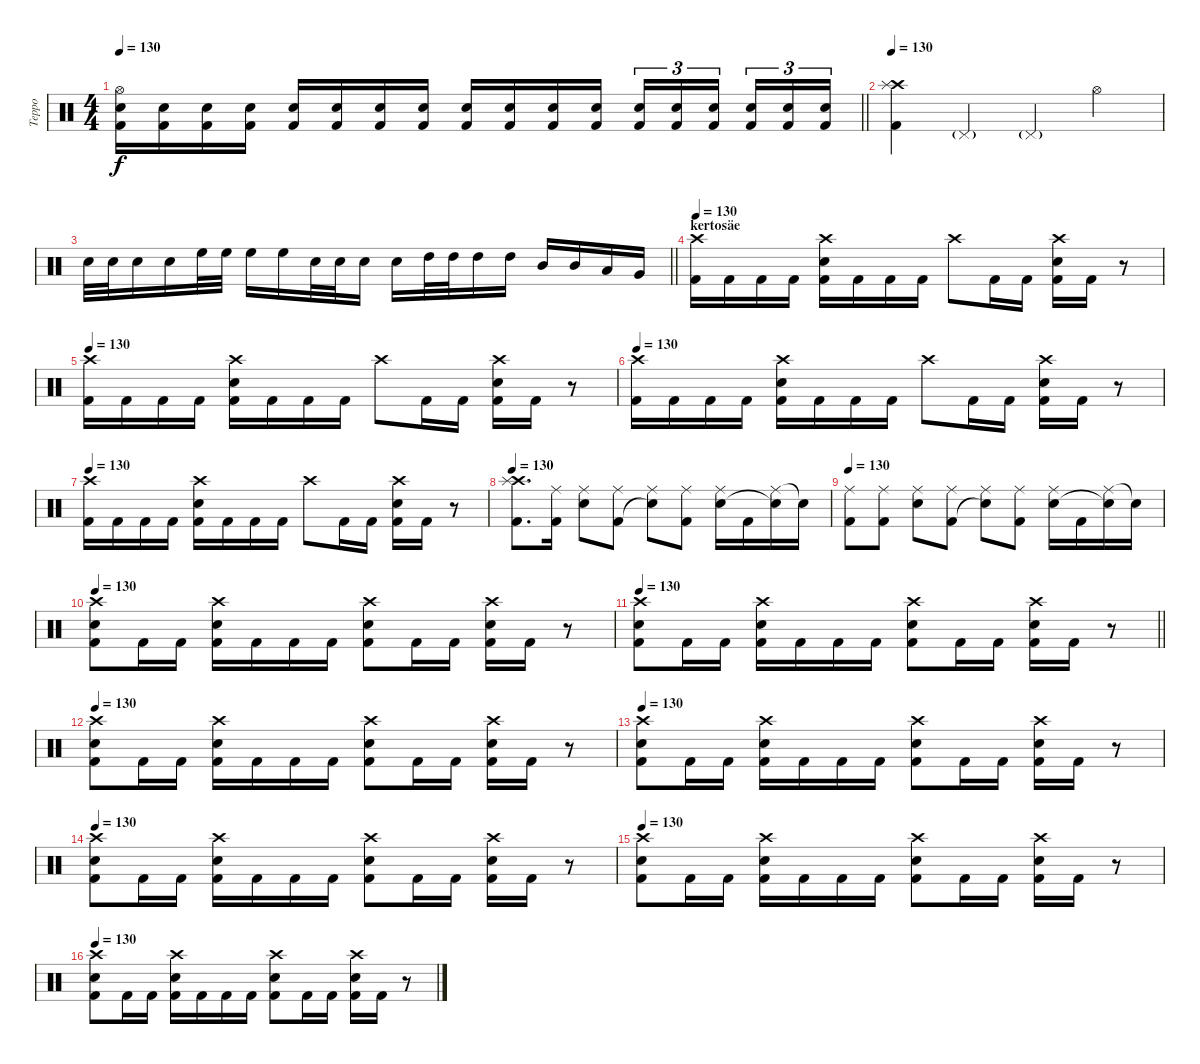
\track ("Teppo" "Teppo") {instrument percussion}
\staff {score}
\articulation defaults
\ts (4 4)
\tempo 130
\clef neutral
\barLineRight lightlight
\ks c
("Hi-Hat (open)" "Electric Snare (hit)" "Kick (hit) 2").16{dy f} ("Electric Snare (hit)" "Kick (hit) 2").16 ("Electric Snare (hit)" "Kick (hit) 2").16 ("Electric Snare (hit)" "Kick (hit) 2").16 ("Electric Snare (hit)" "Kick (hit) 2").16 ("Electric Snare (hit)" "Kick (hit) 2").16 ("Electric Snare (hit)" "Kick (hit) 2").16 ("Electric Snare (hit)" "Kick (hit) 2").16 ("Electric Snare (hit)" "Kick (hit) 2").16 ("Electric Snare (hit)" "Kick (hit) 2").16 ("Electric Snare (hit)" "Kick (hit) 2").16 ("Electric Snare (hit)" "Kick (hit) 2").16 ("Electric Snare (hit)" "Kick (hit) 2").16{tu (3 2)} ("Electric Snare (hit)" "Kick (hit) 2").16{tu (3 2)} ("Electric Snare (hit)" "Kick (hit) 2").16{tu (3 2)} ("Electric Snare (hit)" "Kick (hit) 2").16{tu (3 2)} ("Electric Snare (hit)" "Kick (hit) 2").16{tu (3 2)} ("Electric Snare (hit)" "Kick (hit) 2").16{tu (3 2)} |
\section ("" "")
\tempo 130
("Crash high (hit)" "Splash (hit)" "Kick (hit) 2").4 "Pedal Hi-Hat (hit)"{g}.4 "Pedal Hi-Hat (hit)"{g}.4 "Hi-Hat (open)".4 |
\barLineRight lightlight "Electric Snare (hit)".32 "Electric Snare (hit)".32 "Electric Snare (hit)".16 "Electric Snare (hit)".16 "High Floor Tom (hit)".32 "High Floor Tom (hit)".32 "High Floor Tom (hit)".16 "High Floor Tom (hit)".16 "Electric Snare (hit)".32 "Electric Snare (hit)".32 "Electric Snare (hit)".16 "Electric Snare (hit)".16 "High Tom (hit)".32 "High Tom (hit)".32 "High Tom (hit)".16 "High Tom (hit)".16 "Mid Tom (hit)".16 "Mid Tom (hit)".16 "Low Tom (hit)".16 "Very Low Tom (hit)".16
|
\section ("" "kertosäe")
\tempo 130
("Crash high (hit)" "Kick (hit) 2").16 "Kick (hit) 2".16 "Kick (hit) 2".16 "Kick (hit) 2".16 ("Crash high (hit)" "Electric Snare (hit)" "Kick (hit) 2").16 "Kick (hit) 2".16 "Kick (hit) 2".16 "Kick (hit) 2".16 "Crash high (hit)".8 "Kick (hit) 2".16 "Kick (hit) 2".16 ("Crash high (hit)" "Electric Snare (hit)" "Kick (hit) 2").16 "Kick (hit) 2".16 r.8 |
\tempo 130
("Crash high (hit)" "Kick (hit) 2").16 "Kick (hit) 2".16 "Kick (hit) 2".16 "Kick (hit) 2".16 ("Crash high (hit)" "Electric Snare (hit)" "Kick (hit) 2").16 "Kick (hit) 2".16 "Kick (hit) 2".16 "Kick (hit) 2".16 "Crash high (hit)".8 "Kick (hit) 2".16 "Kick (hit) 2".16 ("Crash high (hit)" "Electric Snare (hit)" "Kick (hit) 2").16 "Kick (hit) 2".16 r.8 |
\tempo 130
("Crash high (hit)" "Kick (hit) 2").16 "Kick (hit) 2".16 "Kick (hit) 2".16 "Kick (hit) 2".16 ("Crash high (hit)" "Electric Snare (hit)" "Kick (hit) 2").16 "Kick (hit) 2".16 "Kick (hit) 2".16 "Kick (hit) 2".16 "Crash high (hit)".8 "Kick (hit) 2".16 "Kick (hit) 2".16 ("Crash high (hit)" "Electric Snare (hit)" "Kick (hit) 2").16 "Kick (hit) 2".16 r.8 |
\tempo 130
("Crash high (hit)" "Kick (hit) 2").16 "Kick (hit) 2".16 "Kick (hit) 2".16 "Kick (hit) 2".16 ("Crash high (hit)" "Electric Snare (hit)" "Kick (hit) 2").16 "Kick (hit) 2".16 "Kick (hit) 2".16 "Kick (hit) 2".16 "Crash high (hit)".8 "Kick (hit) 2".16 "Kick (hit) 2".16 ("Crash high (hit)" "Electric Snare (hit)" "Kick (hit) 2").16 "Kick (hit) 2".16 r.8 |
\tempo 130
("Crash high (hit)" "Splash (hit)" "Kick (hit) 2").8{d} ("Ride (middle)" "Kick (hit) 2").16 ("Ride (middle)" "Electric Snare (hit)").8 ("Ride (middle)" "Kick (hit) 2").8 ("Ride (middle)" "Snare (hit)"{t}).8 ("Ride (middle)" "Kick (hit) 2").8 ("Ride (middle)" "Electric Snare (hit)").16 "Kick (hit) 2".16 ("Ride (middle)" "Snare (hit)"{t}).16 "Snare (hit)"{t}.16 |
\tempo 130
("Ride (middle)" "Kick (hit) 2").8 ("Ride (middle)" "Kick (hit) 2").8 ("Ride (middle)" "Electric Snare (hit)").8 ("Ride (middle)" "Kick (hit) 2").8 ("Ride (middle)" "Snare (hit)"{t}).8 ("Ride (middle)" "Kick (hit) 2").8 ("Ride (middle)" "Electric Snare (hit)").16 "Kick (hit) 2".16 ("Ride (middle)" "Snare (hit)"{t}).16 "Snare (hit)"{t}.16 |
\tempo 130
("Crash high (hit)" "Electric Snare (hit)" "Kick (hit) 2").8 "Kick (hit) 2".16 "Kick (hit) 2".16 ("Crash high (hit)" "Electric Snare (hit)" "Kick (hit) 2").16 "Kick (hit) 2".16 "Kick (hit) 2".16 "Kick (hit) 2".16 ("Crash high (hit)" "Electric Snare (hit)" "Kick (hit) 2").8 "Kick (hit) 2".16 "Kick (hit) 2".16 ("Crash high (hit)" "Electric Snare (hit)" "Kick (hit) 2").16 "Kick (hit) 2".16 r.8 |
\tempo 130
\barLineRight lightlight
("Crash high (hit)" "Electric Snare (hit)" "Kick (hit) 2").8 "Kick (hit) 2".16 "Kick (hit) 2".16 ("Crash high (hit)" "Electric Snare (hit)" "Kick (hit) 2").16 "Kick (hit) 2".16 "Kick (hit) 2".16 "Kick (hit) 2".16 ("Crash high (hit)" "Electric Snare (hit)" "Kick (hit) 2").8 "Kick (hit) 2".16 "Kick (hit) 2".16 ("Crash high (hit)" "Electric Snare (hit)" "Kick (hit) 2").16 "Kick (hit) 2".16 r.8 |
\section ("" "")
\tempo 130
("Crash high (hit)" "Electric Snare (hit)" "Kick (hit) 2").8 "Kick (hit) 2".16 "Kick (hit) 2".16 ("Crash high (hit)" "Electric Snare (hit)" "Kick (hit) 2").16 "Kick (hit) 2".16 "Kick (hit) 2".16 "Kick (hit) 2".16 ("Crash high (hit)" "Electric Snare (hit)" "Kick (hit) 2").8 "Kick (hit) 2".16 "Kick (hit) 2".16 ("Crash high (hit)" "Electric Snare (hit)" "Kick (hit) 2").16 "Kick (hit) 2".16 r.8 |
\tempo 130
("Crash high (hit)" "Electric Snare (hit)" "Kick (hit) 2").8 "Kick (hit) 2".16 "Kick (hit) 2".16 ("Crash high (hit)" "Electric Snare (hit)" "Kick (hit) 2").16 "Kick (hit) 2".16 "Kick (hit) 2".16 "Kick (hit) 2".16 ("Crash high (hit)" "Electric Snare (hit)" "Kick (hit) 2").8 "Kick (hit) 2".16 "Kick (hit) 2".16 ("Crash high (hit)" "Electric Snare (hit)" "Kick (hit) 2").16 "Kick (hit) 2".16 r.8 |
\tempo 130
("Crash high (hit)" "Electric Snare (hit)" "Kick (hit) 2").8 "Kick (hit) 2".16 "Kick (hit) 2".16 ("Crash high (hit)" "Electric Snare (hit)" "Kick (hit) 2").16 "Kick (hit) 2".16 "Kick (hit) 2".16 "Kick (hit) 2".16 ("Crash high (hit)" "Electric Snare (hit)" "Kick (hit) 2").8 "Kick (hit) 2".16 "Kick (hit) 2".16 ("Crash high (hit)" "Electric Snare (hit)" "Kick (hit) 2").16 "Kick (hit) 2".16 r.8 |
\tempo 130
("Crash high (hit)" "Electric Snare (hit)" "Kick (hit) 2").8 "Kick (hit) 2".16 "Kick (hit) 2".16 ("Crash high (hit)" "Electric Snare (hit)" "Kick (hit) 2").16 "Kick (hit) 2".16 "Kick (hit) 2".16 "Kick (hit) 2".16 ("Crash high (hit)" "Electric Snare (hit)" "Kick (hit) 2").8 "Kick (hit) 2".16 "Kick (hit) 2".16 ("Crash high (hit)" "Electric Snare (hit)" "Kick (hit) 2").16 "Kick (hit) 2".16 r.8 |
\tempo 130
("Crash high (hit)" "Electric Snare (hit)" "Kick (hit) 2").8 "Kick (hit) 2".16 "Kick (hit) 2".16 ("Crash high (hit)" "Electric Snare (hit)" "Kick (hit) 2").16 "Kick (hit) 2".16 "Kick (hit) 2".16 "Kick (hit) 2".16 ("Crash high (hit)" "Electric Snare (hit)" "Kick (hit) 2").8 "Kick (hit) 2".16 "Kick (hit) 2".16 ("Crash high (hit)" "Electric Snare (hit)" "Kick (hit) 2").16 "Kick (hit) 2".16 r.8
